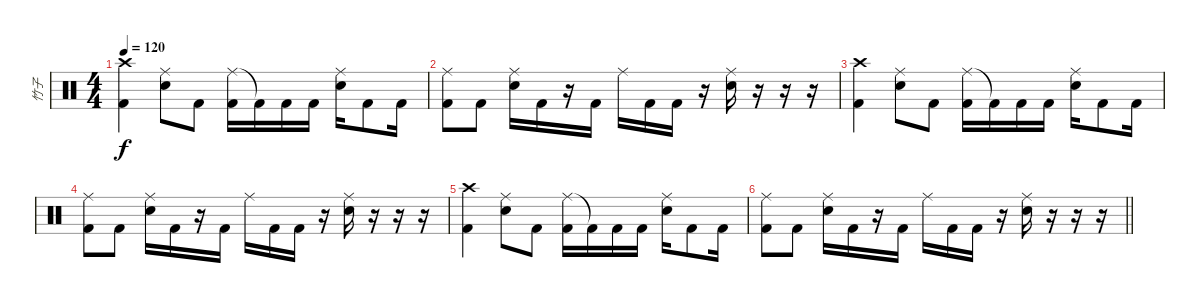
\track ("竹子" "竹子") {instrument percussion}
\staff {score}
\articulation defaults
\ts (4 4)
\tempo 120
\clef neutral
\ks c
("Crash high (hit)" "Kick (hit) 2").4{dy f} ("Ride (middle)" "Electric Snare (hit)").8 "Kick (hit) 2".8 ("Ride (middle)" "Kick (hit) 2").16 "Kick (hit) 2"{t}.16 "Kick (hit) 2".16 "Kick (hit) 2".16 ("Ride (middle)" "Electric Snare (hit)").16 "Kick (hit) 2".8 "Kick (hit) 2".16 |
("Ride (middle)" "Kick (hit) 2").8 "Kick (hit) 2".8 ("Ride (middle)" "Electric Snare (hit)").16 "Kick (hit) 2".16 r.16 "Kick (hit) 2".16 "Ride (middle)".16 "Kick (hit) 2".16 "Kick (hit) 2".16 r.16 ("Ride (middle)" "Electric Snare (hit)").16 r.16 r.16 r.16 |
("Crash high (hit)" "Kick (hit) 2").4 ("Ride (middle)" "Electric Snare (hit)").8 "Kick (hit) 2".8 ("Ride (middle)" "Kick (hit) 2").16 "Kick (hit) 2"{t}.16 "Kick (hit) 2".16 "Kick (hit) 2".16 ("Ride (middle)" "Electric Snare (hit)").16 "Kick (hit) 2".8 "Kick (hit) 2".16 |
("Ride (middle)" "Kick (hit) 2").8 "Kick (hit) 2".8 ("Ride (middle)" "Electric Snare (hit)").16 "Kick (hit) 2".16 r.16 "Kick (hit) 2".16 "Ride (middle)".16 "Kick (hit) 2".16 "Kick (hit) 2".16 r.16 ("Ride (middle)" "Electric Snare (hit)").16 r.16 r.16 r.16 |
("Crash high (hit)" "Kick (hit) 2").4 ("Ride (middle)" "Electric Snare (hit)").8 "Kick (hit) 2".8 ("Ride (middle)" "Kick (hit) 2").16 "Kick (hit) 2"{t}.16 "Kick (hit) 2".16 "Kick (hit) 2".16 ("Ride (middle)" "Electric Snare (hit)").16 "Kick (hit) 2".8 "Kick (hit) 2".16 |
\barLineRight lightlight
("Ride (middle)" "Kick (hit) 2").8 "Kick (hit) 2".8 ("Ride (middle)" "Electric Snare (hit)").16 "Kick (hit) 2".16 r.16 "Kick (hit) 2".16 "Ride (middle)".16 "Kick (hit) 2".16 "Kick (hit) 2".16 r.16 ("Ride (middle)" "Electric Snare (hit)").16 r.16 r.16 r.16
